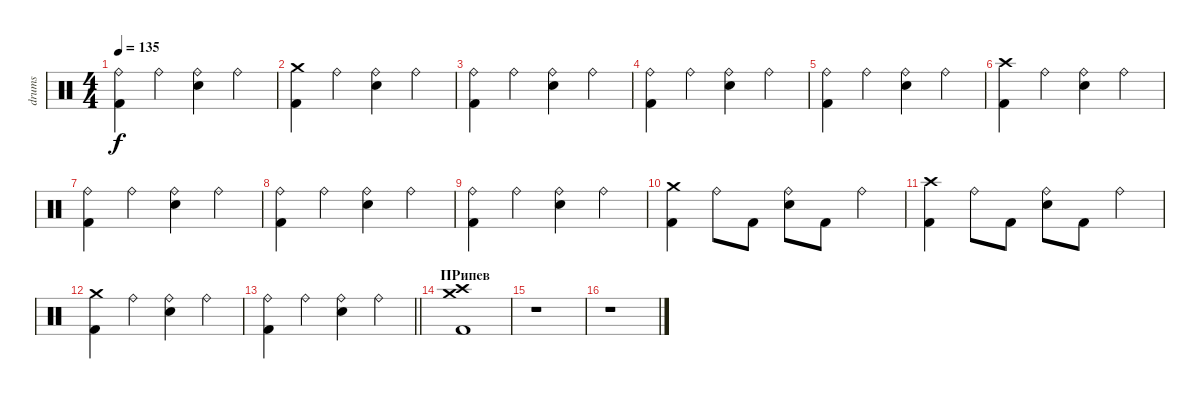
\track ("drums" "drums") {instrument percussion}
\staff {score}
\articulation defaults
\ts (4 4)
\tempo 135
\clef neutral
\ks c
("Kick (hit) 2" "Ride (bell)").4{dy f} "Ride (bell)".4 ("Electric Snare (hit)" "Ride (bell)").4 "Ride (bell)".4 |
("Kick (hit) 2" "Crash medium (hit)").4 "Ride (bell)".4 ("Electric Snare (hit)" "Ride (bell)").4 "Ride (bell)".4 |
("Kick (hit) 2" "Ride (bell)").4 "Ride (bell)".4 ("Electric Snare (hit)" "Ride (bell)").4 "Ride (bell)".4 |
("Ride (bell)" "Kick (hit) 2").4 "Ride (bell)".4 ("Electric Snare (hit)" "Ride (bell)").4 "Ride (bell)".4 |
("Kick (hit) 2" "Ride (bell)").4 "Ride (bell)".4 ("Electric Snare (hit)" "Ride (bell)").4 "Ride (bell)".4 |
("Kick (hit) 2" "Crash high (hit)").4 "Ride (bell)".4 ("Electric Snare (hit)" "Ride (bell)").4 "Ride (bell)".4 |
("Kick (hit) 2" "Ride (bell)").4 "Ride (bell)".4 ("Electric Snare (hit)" "Ride (bell)").4 "Ride (bell)".4 |
("Ride (bell)" "Kick (hit) 2").4 "Ride (bell)".4 ("Electric Snare (hit)" "Ride (bell)").4 "Ride (bell)".4 |
("Kick (hit) 2" "Ride (bell)").4 "Ride (bell)".4 ("Electric Snare (hit)" "Ride (bell)").4 "Ride (bell)".4 |
("Kick (hit) 2" "Crash medium (hit)").4 "Ride (bell)".8 "Kick (hit) 2".8 ("Electric Snare (hit)" "Ride (bell)").8 "Kick (hit) 2".8 "Ride (bell)".4 |
("Kick (hit) 2" "Crash high (hit)").4 "Ride (bell)".8 "Kick (hit) 2".8 ("Electric Snare (hit)" "Ride (bell)").8 "Kick (hit) 2".8 "Ride (bell)".4 |
("Crash medium (hit)" "Kick (hit) 2").4 "Ride (bell)".4 ("Electric Snare (hit)" "Ride (bell)").4 "Ride (bell)".4 |
\barLineRight lightlight
("Kick (hit) 2" "Ride (bell)").4 "Ride (bell)".4 ("Electric Snare (hit)" "Ride (bell)").4 "Ride (bell)".4 |
\section ("" "ПРипев")
("Crash medium (hit)" "Crash high (hit)" "Kick (hit) 2").1 |
r.1 |
r.1
